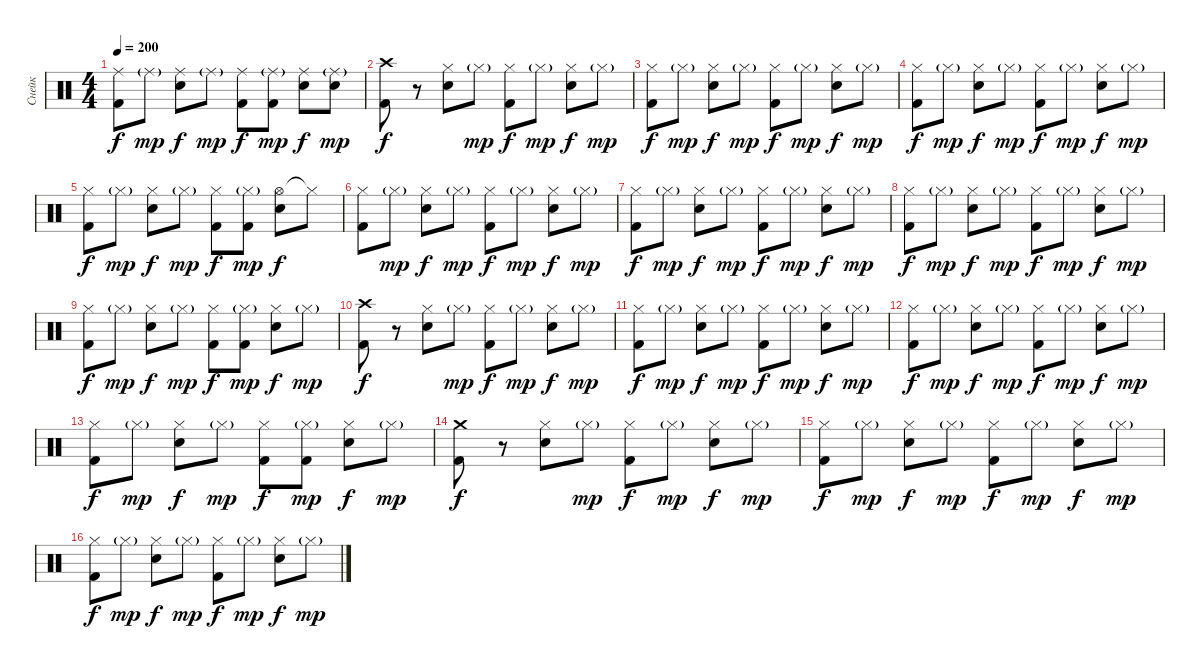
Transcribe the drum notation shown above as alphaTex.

\track ("Снейк" "Снейк") {instrument percussion}
\staff {score}
\articulation defaults
\ts (4 4)
\tempo 200
\clef neutral
\ks c
("Ride (middle)" "Kick (hit) 2").8{dy f} "Ride (middle)"{g}.8{dy mp} ("Ride (middle)" "Electric Snare (hit)").8{dy f} "Ride (middle)"{g}.8{dy mp} ("Ride (middle)" "Kick (hit) 2").8{dy f} ("Ride (middle)"{g} "Kick (hit) 2").8{dy mp} ("Ride (middle)" "Electric Snare (hit)").8{dy f} ("Ride (middle)"{g} "Electric Snare (hit)").8{dy mp} |
("Crash high (hit)" "Kick (hit) 2").8{dy f} r.8 ("Hi-Hat (closed)" "Electric Snare (hit)").8 "Hi-Hat (closed)"{g}.8{dy mp} ("Hi-Hat (closed)" "Kick (hit) 2").8{dy f} "Hi-Hat (closed)"{g}.8{dy mp} ("Hi-Hat (closed)" "Electric Snare (hit)").8{dy f} "Hi-Hat (closed)"{g}.8{dy mp} |
("Hi-Hat (closed)" "Kick (hit) 2").8{dy f} "Hi-Hat (closed)"{g}.8{dy mp} ("Hi-Hat (closed)" "Electric Snare (hit)").8{dy f} "Hi-Hat (closed)"{g}.8{dy mp} ("Hi-Hat (closed)" "Kick (hit) 2").8{dy f} "Hi-Hat (closed)"{g}.8{dy mp} ("Hi-Hat (closed)" "Electric Snare (hit)").8{dy f} "Hi-Hat (closed)"{g}.8{dy mp} |
("Hi-Hat (closed)" "Kick (hit) 2").8{dy f} "Hi-Hat (closed)"{g}.8{dy mp} ("Hi-Hat (closed)" "Electric Snare (hit)").8{dy f} "Hi-Hat (closed)"{g}.8{dy mp} ("Hi-Hat (closed)" "Kick (hit) 2").8{dy f} "Hi-Hat (closed)"{g}.8{dy mp} ("Hi-Hat (closed)" "Electric Snare (hit)").8{dy f} "Hi-Hat (closed)"{g}.8{dy mp} |
("Hi-Hat (closed)" "Kick (hit) 2").8{dy f} "Hi-Hat (closed)"{g}.8{dy mp} ("Hi-Hat (closed)" "Electric Snare (hit)").8{dy f} "Hi-Hat (closed)"{g}.8{dy mp} ("Hi-Hat (closed)" "Kick (hit) 2").8{dy f} ("Hi-Hat (closed)"{g} "Kick (hit) 2").8{dy mp} ("Hi-Hat (open)" "Electric Snare (hit)").8{dy f} "Hi-Hat (closed)"{t}.8 |
("Hi-Hat (closed)" "Kick (hit) 2").8 "Hi-Hat (closed)"{g}.8{dy mp} ("Hi-Hat (closed)" "Electric Snare (hit)").8{dy f} "Hi-Hat (closed)"{g}.8{dy mp} ("Hi-Hat (closed)" "Kick (hit) 2").8{dy f} "Hi-Hat (closed)"{g}.8{dy mp} ("Hi-Hat (closed)" "Electric Snare (hit)").8{dy f} "Hi-Hat (closed)"{g}.8{dy mp} |
("Hi-Hat (closed)" "Kick (hit) 2").8{dy f} "Hi-Hat (closed)"{g}.8{dy mp} ("Hi-Hat (closed)" "Electric Snare (hit)").8{dy f} "Hi-Hat (closed)"{g}.8{dy mp} ("Hi-Hat (closed)" "Kick (hit) 2").8{dy f} "Hi-Hat (closed)"{g}.8{dy mp} ("Hi-Hat (closed)" "Electric Snare (hit)").8{dy f} "Hi-Hat (closed)"{g}.8{dy mp} |
("Hi-Hat (closed)" "Kick (hit) 2").8{dy f} "Hi-Hat (closed)"{g}.8{dy mp} ("Hi-Hat (closed)" "Electric Snare (hit)").8{dy f} "Hi-Hat (closed)"{g}.8{dy mp} ("Hi-Hat (closed)" "Kick (hit) 2").8{dy f} "Hi-Hat (closed)"{g}.8{dy mp} ("Hi-Hat (closed)" "Electric Snare (hit)").8{dy f} "Hi-Hat (closed)"{g}.8{dy mp} |
("Hi-Hat (closed)" "Kick (hit) 2").8{dy f} "Hi-Hat (closed)"{g}.8{dy mp} ("Hi-Hat (closed)" "Electric Snare (hit)").8{dy f} "Hi-Hat (closed)"{g}.8{dy mp} ("Hi-Hat (closed)" "Kick (hit) 2").8{dy f} ("Hi-Hat (closed)"{g} "Kick (hit) 2").8{dy mp} ("Hi-Hat (closed)" "Electric Snare (hit)").8{dy f} "Hi-Hat (closed)"{g}.8{dy mp} |
("Crash high (hit)" "Kick (hit) 2").8{dy f} r.8 ("Hi-Hat (closed)" "Electric Snare (hit)").8 "Hi-Hat (closed)"{g}.8{dy mp} ("Hi-Hat (closed)" "Kick (hit) 2").8{dy f} "Hi-Hat (closed)"{g}.8{dy mp} ("Hi-Hat (closed)" "Electric Snare (hit)").8{dy f} "Hi-Hat (closed)"{g}.8{dy mp} |
("Hi-Hat (closed)" "Kick (hit) 2").8{dy f} "Hi-Hat (closed)"{g}.8{dy mp} ("Hi-Hat (closed)" "Electric Snare (hit)").8{dy f} "Hi-Hat (closed)"{g}.8{dy mp} ("Hi-Hat (closed)" "Kick (hit) 2").8{dy f} "Hi-Hat (closed)"{g}.8{dy mp} ("Hi-Hat (closed)" "Electric Snare (hit)").8{dy f} "Hi-Hat (closed)"{g}.8{dy mp} |
("Hi-Hat (closed)" "Kick (hit) 2").8{dy f} "Hi-Hat (closed)"{g}.8{dy mp} ("Hi-Hat (closed)" "Electric Snare (hit)").8{dy f} "Hi-Hat (closed)"{g}.8{dy mp} ("Hi-Hat (closed)" "Kick (hit) 2").8{dy f} "Hi-Hat (closed)"{g}.8{dy mp} ("Hi-Hat (closed)" "Electric Snare (hit)").8{dy f} "Hi-Hat (closed)"{g}.8{dy mp} |
("Hi-Hat (closed)" "Kick (hit) 2").8{dy f} "Hi-Hat (closed)"{g}.8{dy mp} ("Hi-Hat (closed)" "Electric Snare (hit)").8{dy f} "Hi-Hat (closed)"{g}.8{dy mp} ("Hi-Hat (closed)" "Kick (hit) 2").8{dy f} ("Hi-Hat (closed)"{g} "Kick (hit) 2").8{dy mp} ("Hi-Hat (closed)" "Electric Snare (hit)").8{dy f} "Hi-Hat (closed)"{g}.8{dy mp} |
("Crash medium (hit)" "Kick (hit) 2").8{dy f} r.8 ("Hi-Hat (closed)" "Electric Snare (hit)").8 "Hi-Hat (closed)"{g}.8{dy mp} ("Hi-Hat (closed)" "Kick (hit) 2").8{dy f} "Hi-Hat (closed)"{g}.8{dy mp} ("Hi-Hat (closed)" "Electric Snare (hit)").8{dy f} "Hi-Hat (closed)"{g}.8{dy mp} |
("Hi-Hat (closed)" "Kick (hit) 2").8{dy f} "Hi-Hat (closed)"{g}.8{dy mp} ("Hi-Hat (closed)" "Electric Snare (hit)").8{dy f} "Hi-Hat (closed)"{g}.8{dy mp} ("Hi-Hat (closed)" "Kick (hit) 2").8{dy f} "Hi-Hat (closed)"{g}.8{dy mp} ("Hi-Hat (closed)" "Electric Snare (hit)").8{dy f} "Hi-Hat (closed)"{g}.8{dy mp} |
("Hi-Hat (closed)" "Kick (hit) 2").8{dy f} "Hi-Hat (closed)"{g}.8{dy mp} ("Hi-Hat (closed)" "Electric Snare (hit)").8{dy f} "Hi-Hat (closed)"{g}.8{dy mp} ("Hi-Hat (closed)" "Kick (hit) 2").8{dy f} "Hi-Hat (closed)"{g}.8{dy mp} ("Hi-Hat (closed)" "Electric Snare (hit)").8{dy f} "Hi-Hat (closed)"{g}.8{dy mp}
